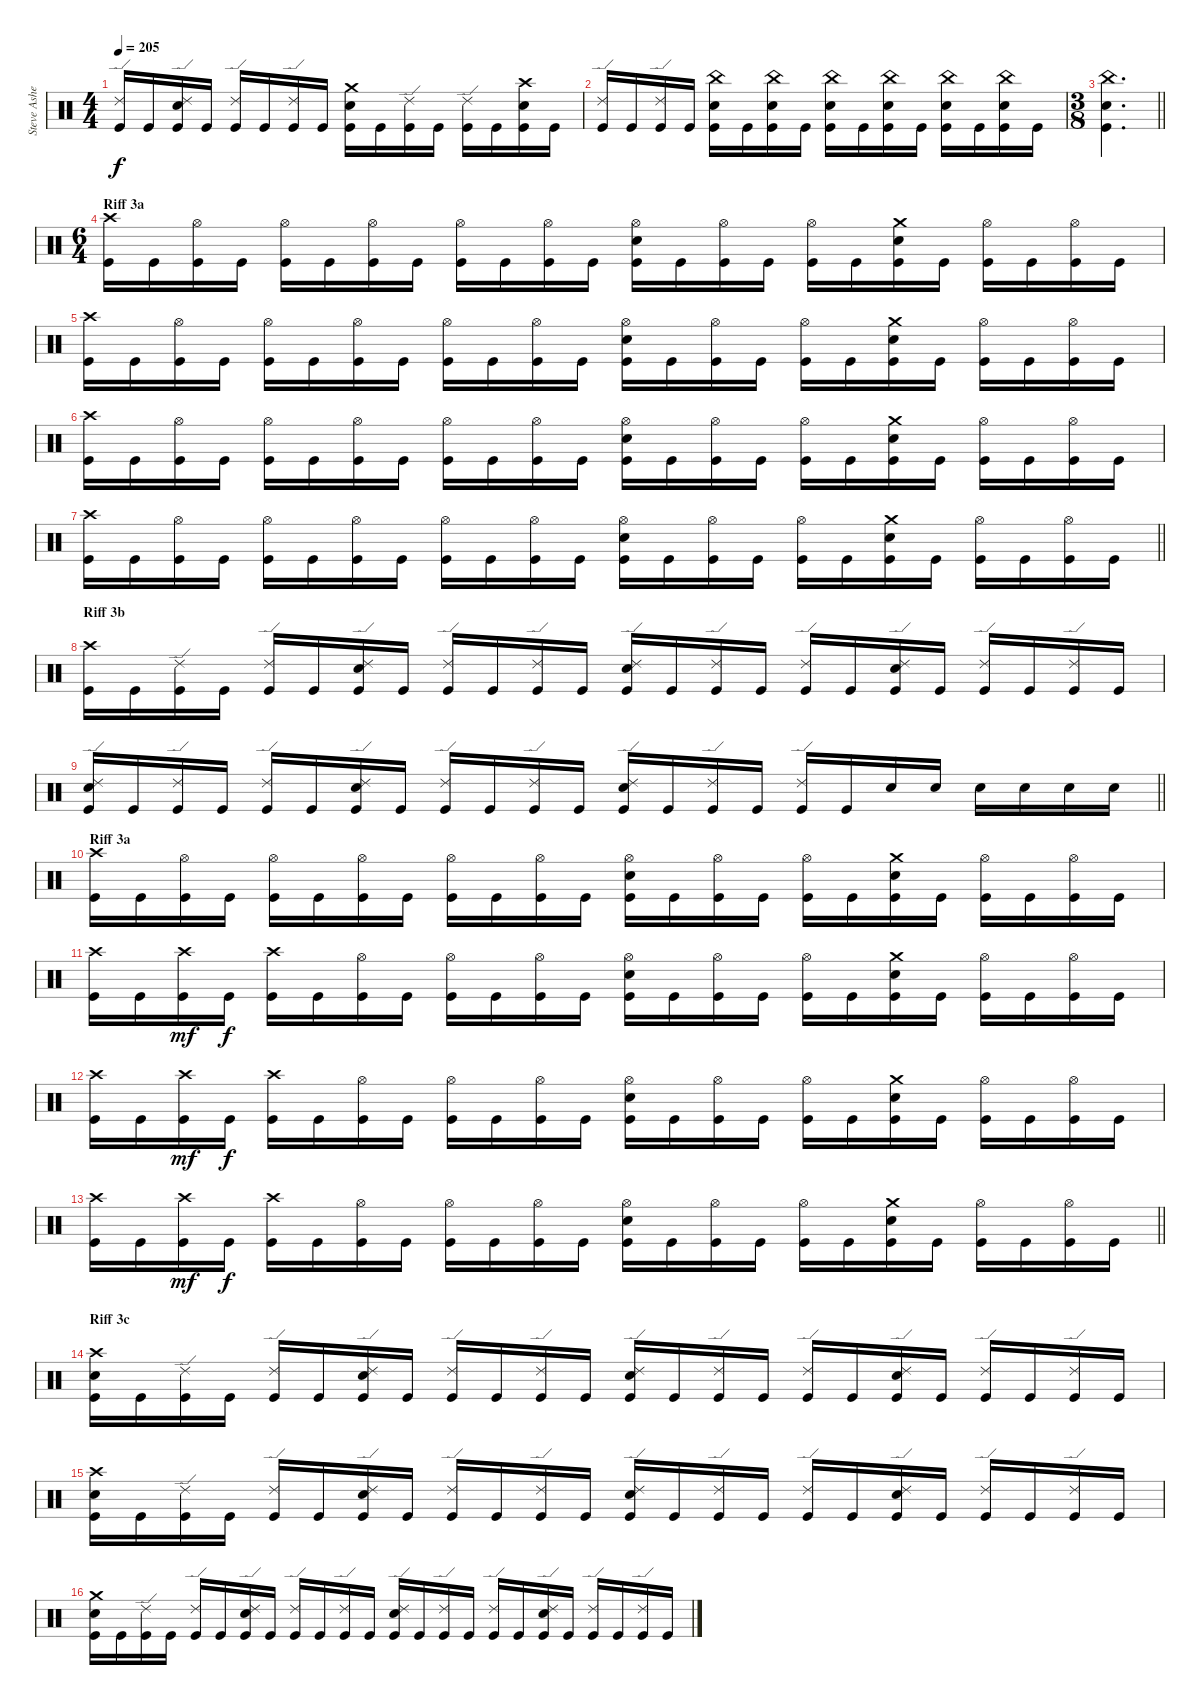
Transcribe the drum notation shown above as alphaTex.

\track ("Steve Asheim" "Steve Ashe") {instrument percussion}
\staff {score}
\articulation defaults
\ts (4 4)
\tempo 205
\clef neutral
\ks c
("Ride (edge) 2" "Kick (hit)").16{dy f} "Kick (hit)".16 ("Ride (edge) 2" "Snare (hit) 2" "Kick (hit)").16 "Kick (hit)".16 ("Ride (edge) 2" "Kick (hit)").16 "Kick (hit)".16 ("Ride (edge) 2" "Kick (hit)").16 "Kick (hit)".16 ("Crash medium (hit)" "Snare (hit) 2" "Kick (hit)").16 "Kick (hit)".16 ("Ride (edge) 2" "Kick (hit)").16 "Kick (hit)".16 ("Ride (edge) 2" "Kick (hit)").16 "Kick (hit)".16 ("Crash high (hit)" "Snare (hit) 2" "Kick (hit)").16 "Kick (hit)".16 |
("Ride (edge) 2" "Kick (hit)").16 "Kick (hit)".16 ("Ride (edge) 2" "Kick (hit)").16 "Kick (hit)".16 ("China (hit)" "Snare (hit) 2" "Kick (hit)").16 "Kick (hit)".16 ("China (hit)" "Snare (hit) 2" "Kick (hit)").16 "Kick (hit)".16 ("China (hit)" "Snare (hit) 2" "Kick (hit)").16 "Kick (hit)".16 ("China (hit)" "Snare (hit) 2" "Kick (hit)").16 "Kick (hit)".16 ("China (hit)" "Snare (hit) 2" "Kick (hit)").16 "Kick (hit)".16 ("China (hit)" "Snare (hit) 2" "Kick (hit)").16 "Kick (hit)".16 |
\ts (3 8)
\barLineRight lightlight
("China (hit)" "Snare (hit) 2" "Kick (hit)").4{d} |
\ts (6 4)
\section ("" "Riff 3a")
("Crash high (hit)" "Kick (hit)").16 "Kick (hit)".16 ("Hi-Hat (open)" "Kick (hit)").16 "Kick (hit)".16 ("Hi-Hat (open)" "Kick (hit)").16 "Kick (hit)".16 ("Hi-Hat (open)" "Kick (hit)").16 "Kick (hit)".16 ("Hi-Hat (open)" "Kick (hit)").16 "Kick (hit)".16 ("Hi-Hat (open)" "Kick (hit)").16 "Kick (hit)".16 ("Hi-Hat (open)" "Snare (hit) 2" "Kick (hit)").16 "Kick (hit)".16 ("Hi-Hat (open)" "Kick (hit)").16 "Kick (hit)".16 ("Hi-Hat (open)" "Kick (hit)").16 "Kick (hit)".16 ("Crash medium (hit)" "Snare (hit) 2" "Kick (hit)").16 "Kick (hit)".16 ("Hi-Hat (open)" "Kick (hit)").16 "Kick (hit)".16 ("Hi-Hat (open)" "Kick (hit)").16 "Kick (hit)".16 |
("Crash high (hit)" "Kick (hit)").16 "Kick (hit)".16 ("Hi-Hat (open)" "Kick (hit)").16 "Kick (hit)".16 ("Hi-Hat (open)" "Kick (hit)").16 "Kick (hit)".16 ("Hi-Hat (open)" "Kick (hit)").16 "Kick (hit)".16 ("Hi-Hat (open)" "Kick (hit)").16 "Kick (hit)".16 ("Hi-Hat (open)" "Kick (hit)").16 "Kick (hit)".16 ("Hi-Hat (open)" "Snare (hit) 2" "Kick (hit)").16 "Kick (hit)".16 ("Hi-Hat (open)" "Kick (hit)").16 "Kick (hit)".16 ("Hi-Hat (open)" "Kick (hit)").16 "Kick (hit)".16 ("Crash medium (hit)" "Snare (hit) 2" "Kick (hit)").16 "Kick (hit)".16 ("Hi-Hat (open)" "Kick (hit)").16 "Kick (hit)".16 ("Hi-Hat (open)" "Kick (hit)").16 "Kick (hit)".16 |
("Crash high (hit)" "Kick (hit)").16 "Kick (hit)".16 ("Hi-Hat (open)" "Kick (hit)").16 "Kick (hit)".16 ("Hi-Hat (open)" "Kick (hit)").16 "Kick (hit)".16 ("Hi-Hat (open)" "Kick (hit)").16 "Kick (hit)".16 ("Hi-Hat (open)" "Kick (hit)").16 "Kick (hit)".16 ("Hi-Hat (open)" "Kick (hit)").16 "Kick (hit)".16 ("Hi-Hat (open)" "Snare (hit) 2" "Kick (hit)").16 "Kick (hit)".16 ("Hi-Hat (open)" "Kick (hit)").16 "Kick (hit)".16 ("Hi-Hat (open)" "Kick (hit)").16 "Kick (hit)".16 ("Crash medium (hit)" "Snare (hit) 2" "Kick (hit)").16 "Kick (hit)".16 ("Hi-Hat (open)" "Kick (hit)").16 "Kick (hit)".16 ("Hi-Hat (open)" "Kick (hit)").16 "Kick (hit)".16 |
\barLineRight lightlight
("Crash high (hit)" "Kick (hit)").16 "Kick (hit)".16 ("Hi-Hat (open)" "Kick (hit)").16 "Kick (hit)".16 ("Hi-Hat (open)" "Kick (hit)").16 "Kick (hit)".16 ("Hi-Hat (open)" "Kick (hit)").16 "Kick (hit)".16 ("Hi-Hat (open)" "Kick (hit)").16 "Kick (hit)".16 ("Hi-Hat (open)" "Kick (hit)").16 "Kick (hit)".16 ("Hi-Hat (open)" "Snare (hit) 2" "Kick (hit)").16 "Kick (hit)".16 ("Hi-Hat (open)" "Kick (hit)").16 "Kick (hit)".16 ("Hi-Hat (open)" "Kick (hit)").16 "Kick (hit)".16 ("Crash medium (hit)" "Snare (hit) 2" "Kick (hit)").16 "Kick (hit)".16 ("Hi-Hat (open)" "Kick (hit)").16 "Kick (hit)".16 ("Hi-Hat (open)" "Kick (hit)").16 "Kick (hit)".16 |
\section ("" "Riff 3b")
("Crash high (hit)" "Kick (hit)").16 "Kick (hit)".16 ("Ride (edge) 2" "Kick (hit)").16 "Kick (hit)".16 ("Ride (edge) 2" "Kick (hit)").16 "Kick (hit)".16 ("Ride (edge) 2" "Snare (hit) 2" "Kick (hit)").16 "Kick (hit)".16 ("Ride (edge) 2" "Kick (hit)").16 "Kick (hit)".16 ("Ride (edge) 2" "Kick (hit)").16 "Kick (hit)".16 ("Ride (edge) 2" "Snare (hit) 2" "Kick (hit)").16 "Kick (hit)".16 ("Ride (edge) 2" "Kick (hit)").16 "Kick (hit)".16 ("Ride (edge) 2" "Kick (hit)").16 "Kick (hit)".16 ("Ride (edge) 2" "Snare (hit) 2" "Kick (hit)").16 "Kick (hit)".16 ("Ride (edge) 2" "Kick (hit)").16 "Kick (hit)".16 ("Ride (edge) 2" "Kick (hit)").16 "Kick (hit)".16 |
\barLineRight lightlight
("Ride (edge) 2" "Snare (hit) 2" "Kick (hit)").16 "Kick (hit)".16 ("Ride (edge) 2" "Kick (hit)").16 "Kick (hit)".16 ("Ride (edge) 2" "Kick (hit)").16 "Kick (hit)".16 ("Ride (edge) 2" "Snare (hit) 2" "Kick (hit)").16 "Kick (hit)".16 ("Ride (edge) 2" "Kick (hit)").16 "Kick (hit)".16 ("Ride (edge) 2" "Kick (hit)").16 "Kick (hit)".16 ("Ride (edge) 2" "Snare (hit) 2" "Kick (hit)").16 "Kick (hit)".16 ("Ride (edge) 2" "Kick (hit)").16 "Kick (hit)".16 ("Ride (edge) 2" "Kick (hit)").16 "Kick (hit)".16 "Snare (hit) 2".16 "Snare (hit) 2".16 "Snare (hit) 2".16 "Snare (hit) 2".16 "Snare (hit) 2".16 "Snare (hit) 2".16 |
\section ("" "Riff 3a")
("Crash high (hit)" "Kick (hit)").16 "Kick (hit)".16 ("Hi-Hat (open)" "Kick (hit)").16 "Kick (hit)".16 ("Hi-Hat (open)" "Kick (hit)").16 "Kick (hit)".16 ("Hi-Hat (open)" "Kick (hit)").16 "Kick (hit)".16 ("Hi-Hat (open)" "Kick (hit)").16 "Kick (hit)".16 ("Hi-Hat (open)" "Kick (hit)").16 "Kick (hit)".16 ("Hi-Hat (open)" "Snare (hit) 2" "Kick (hit)").16 "Kick (hit)".16 ("Hi-Hat (open)" "Kick (hit)").16 "Kick (hit)".16 ("Hi-Hat (open)" "Kick (hit)").16 "Kick (hit)".16 ("Crash medium (hit)" "Snare (hit) 2" "Kick (hit)").16 "Kick (hit)".16 ("Hi-Hat (open)" "Kick (hit)").16 "Kick (hit)".16 ("Hi-Hat (open)" "Kick (hit)").16 "Kick (hit)".16 |
("Crash high (hit)" "Kick (hit)").16 "Kick (hit)".16 ("Crash high (hit)" "Kick (hit)").16{dy mf} "Kick (hit)".16{dy f} ("Crash high (hit)" "Kick (hit)").16 "Kick (hit)".16 ("Hi-Hat (open)" "Kick (hit)").16 "Kick (hit)".16 ("Hi-Hat (open)" "Kick (hit)").16 "Kick (hit)".16 ("Hi-Hat (open)" "Kick (hit)").16 "Kick (hit)".16 ("Hi-Hat (open)" "Snare (hit) 2" "Kick (hit)").16 "Kick (hit)".16 ("Hi-Hat (open)" "Kick (hit)").16 "Kick (hit)".16 ("Hi-Hat (open)" "Kick (hit)").16 "Kick (hit)".16 ("Crash medium (hit)" "Snare (hit) 2" "Kick (hit)").16 "Kick (hit)".16 ("Hi-Hat (open)" "Kick (hit)").16 "Kick (hit)".16 ("Hi-Hat (open)" "Kick (hit)").16 "Kick (hit)".16 |
("Crash high (hit)" "Kick (hit)").16 "Kick (hit)".16 ("Crash high (hit)" "Kick (hit)").16{dy mf} "Kick (hit)".16{dy f} ("Crash high (hit)" "Kick (hit)").16 "Kick (hit)".16 ("Hi-Hat (open)" "Kick (hit)").16 "Kick (hit)".16 ("Hi-Hat (open)" "Kick (hit)").16 "Kick (hit)".16 ("Hi-Hat (open)" "Kick (hit)").16 "Kick (hit)".16 ("Hi-Hat (open)" "Snare (hit) 2" "Kick (hit)").16 "Kick (hit)".16 ("Hi-Hat (open)" "Kick (hit)").16 "Kick (hit)".16 ("Hi-Hat (open)" "Kick (hit)").16 "Kick (hit)".16 ("Crash medium (hit)" "Snare (hit) 2" "Kick (hit)").16 "Kick (hit)".16 ("Hi-Hat (open)" "Kick (hit)").16 "Kick (hit)".16 ("Hi-Hat (open)" "Kick (hit)").16 "Kick (hit)".16 |
\barLineRight lightlight
("Crash high (hit)" "Kick (hit)").16 "Kick (hit)".16 ("Crash high (hit)" "Kick (hit)").16{dy mf} "Kick (hit)".16{dy f} ("Crash high (hit)" "Kick (hit)").16 "Kick (hit)".16 ("Hi-Hat (open)" "Kick (hit)").16 "Kick (hit)".16 ("Hi-Hat (open)" "Kick (hit)").16 "Kick (hit)".16 ("Hi-Hat (open)" "Kick (hit)").16 "Kick (hit)".16 ("Hi-Hat (open)" "Snare (hit) 2" "Kick (hit)").16 "Kick (hit)".16 ("Hi-Hat (open)" "Kick (hit)").16 "Kick (hit)".16 ("Hi-Hat (open)" "Kick (hit)").16 "Kick (hit)".16 ("Crash medium (hit)" "Snare (hit) 2" "Kick (hit)").16 "Kick (hit)".16 ("Hi-Hat (open)" "Kick (hit)").16 "Kick (hit)".16 ("Hi-Hat (open)" "Kick (hit)").16 "Kick (hit)".16 |
\section ("" "Riff 3c")
("Crash high (hit)" "Snare (hit) 2" "Kick (hit)").16 "Kick (hit)".16 ("Ride (edge) 2" "Kick (hit)").16 "Kick (hit)".16 ("Ride (edge) 2" "Kick (hit)").16 "Kick (hit)".16 ("Ride (edge) 2" "Snare (hit) 2" "Kick (hit)").16 "Kick (hit)".16 ("Ride (edge) 2" "Kick (hit)").16 "Kick (hit)".16 ("Ride (edge) 2" "Kick (hit)").16 "Kick (hit)".16 ("Ride (edge) 2" "Snare (hit) 2" "Kick (hit)").16 "Kick (hit)".16 ("Ride (edge) 2" "Kick (hit)").16 "Kick (hit)".16 ("Ride (edge) 2" "Kick (hit)").16 "Kick (hit)".16 ("Ride (edge) 2" "Snare (hit) 2" "Kick (hit)").16 "Kick (hit)".16 ("Ride (edge) 2" "Kick (hit)").16 "Kick (hit)".16 ("Ride (edge) 2" "Kick (hit)").16 "Kick (hit)".16 |
("Crash high (hit)" "Snare (hit) 2" "Kick (hit)").16 "Kick (hit)".16 ("Ride (edge) 2" "Kick (hit)").16 "Kick (hit)".16 ("Ride (edge) 2" "Kick (hit)").16 "Kick (hit)".16 ("Ride (edge) 2" "Snare (hit) 2" "Kick (hit)").16 "Kick (hit)".16 ("Ride (edge) 2" "Kick (hit)").16 "Kick (hit)".16 ("Ride (edge) 2" "Kick (hit)").16 "Kick (hit)".16 ("Ride (edge) 2" "Snare (hit) 2" "Kick (hit)").16 "Kick (hit)".16 ("Ride (edge) 2" "Kick (hit)").16 "Kick (hit)".16 ("Ride (edge) 2" "Kick (hit)").16 "Kick (hit)".16 ("Ride (edge) 2" "Snare (hit) 2" "Kick (hit)").16 "Kick (hit)".16 ("Ride (edge) 2" "Kick (hit)").16 "Kick (hit)".16 ("Ride (edge) 2" "Kick (hit)").16 "Kick (hit)".16 |
("Crash medium (hit)" "Snare (hit) 2" "Kick (hit)").16 "Kick (hit)".16 ("Ride (edge) 2" "Kick (hit)").16 "Kick (hit)".16 ("Ride (edge) 2" "Kick (hit)").16 "Kick (hit)".16 ("Ride (edge) 2" "Snare (hit) 2" "Kick (hit)").16 "Kick (hit)".16 ("Ride (edge) 2" "Kick (hit)").16 "Kick (hit)".16 ("Ride (edge) 2" "Kick (hit)").16 "Kick (hit)".16 ("Ride (edge) 2" "Snare (hit) 2" "Kick (hit)").16 "Kick (hit)".16 ("Ride (edge) 2" "Kick (hit)").16 "Kick (hit)".16 ("Ride (edge) 2" "Kick (hit)").16 "Kick (hit)".16 ("Ride (edge) 2" "Snare (hit) 2" "Kick (hit)").16 "Kick (hit)".16 ("Ride (edge) 2" "Kick (hit)").16 "Kick (hit)".16 ("Ride (edge) 2" "Kick (hit)").16 "Kick (hit)".16
